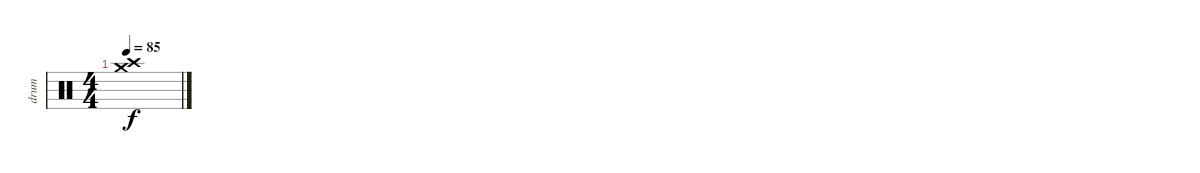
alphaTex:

\track ("drum" "drum") {instrument percussion}
\staff {score}
\articulation defaults
\ts (4 4)
\tempo 85
\clef neutral
\ks c
("Crash medium (hit)" "Crash high (hit)").1{dy f}
